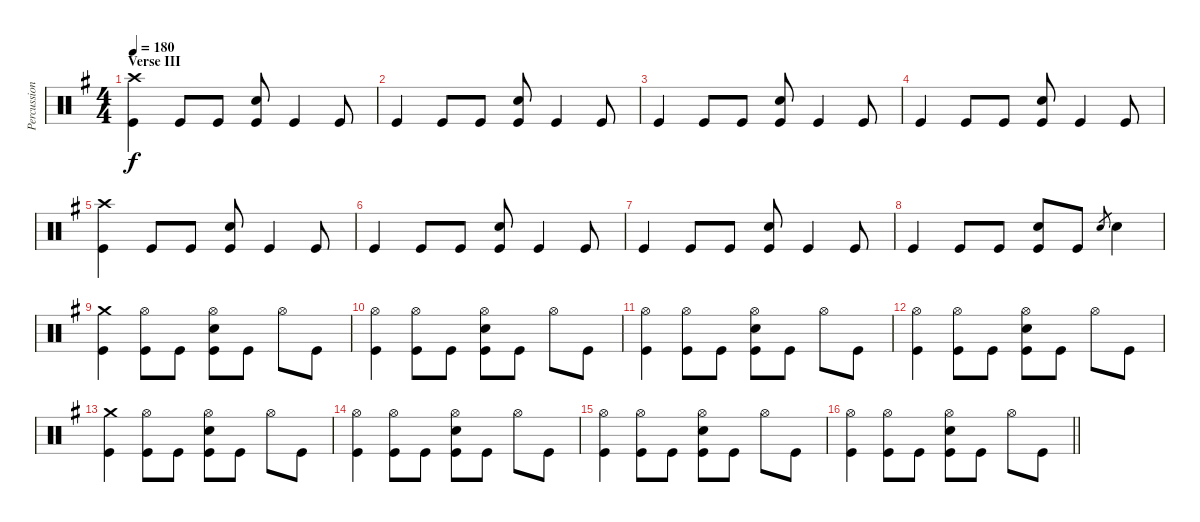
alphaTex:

\track ("Percussion" "Percussion") {instrument percussion}
\staff {score}
\articulation defaults
\ts (4 4)
\section ("" "Verse III")
\tempo 180
\clef neutral
\ks g
("Crash high (hit)" "Kick (hit)").4{dy f} "Kick (hit)".8 "Kick (hit)".8 ("Electric Snare (hit)" "Kick (hit)").8 "Kick (hit)".4 "Kick (hit)".8 |
"Kick (hit)".4 "Kick (hit)".8 "Kick (hit)".8 ("Electric Snare (hit)" "Kick (hit)").8 "Kick (hit)".4 "Kick (hit)".8 |
"Kick (hit)".4 "Kick (hit)".8 "Kick (hit)".8 ("Electric Snare (hit)" "Kick (hit)").8 "Kick (hit)".4 "Kick (hit)".8 |
"Kick (hit)".4 "Kick (hit)".8 "Kick (hit)".8 ("Electric Snare (hit)" "Kick (hit)").8 "Kick (hit)".4 "Kick (hit)".8 |
("Crash high (hit)" "Kick (hit)").4 "Kick (hit)".8 "Kick (hit)".8 ("Electric Snare (hit)" "Kick (hit)").8 "Kick (hit)".4 "Kick (hit)".8 |
"Kick (hit)".4 "Kick (hit)".8 "Kick (hit)".8 ("Electric Snare (hit)" "Kick (hit)").8 "Kick (hit)".4 "Kick (hit)".8 |
"Kick (hit)".4 "Kick (hit)".8 "Kick (hit)".8 ("Electric Snare (hit)" "Kick (hit)").8 "Kick (hit)".4 "Kick (hit)".8 |
"Kick (hit)".4 "Kick (hit)".8 "Kick (hit)".8 ("Electric Snare (hit)" "Kick (hit)").8 "Kick (hit)".8 "Electric Snare (hit)".8{gr} "Electric Snare (hit)".4 |
("Crash medium (hit)" "Kick (hit)").4 ("Hi-Hat (open)" "Kick (hit)").8 "Kick (hit)".8 ("Hi-Hat (open)" "Electric Snare (hit)" "Kick (hit)").8 "Kick (hit)".8 "Hi-Hat (open)".8 "Kick (hit)".8 |
("Hi-Hat (open)" "Kick (hit)").4 ("Hi-Hat (open)" "Kick (hit)").8 "Kick (hit)".8 ("Hi-Hat (open)" "Electric Snare (hit)" "Kick (hit)").8 "Kick (hit)".8 "Hi-Hat (open)".8 "Kick (hit)".8 |
("Hi-Hat (open)" "Kick (hit)").4 ("Hi-Hat (open)" "Kick (hit)").8 "Kick (hit)".8 ("Hi-Hat (open)" "Electric Snare (hit)" "Kick (hit)").8 "Kick (hit)".8 "Hi-Hat (open)".8 "Kick (hit)".8 |
("Hi-Hat (open)" "Kick (hit)").4 ("Hi-Hat (open)" "Kick (hit)").8 "Kick (hit)".8 ("Hi-Hat (open)" "Electric Snare (hit)" "Kick (hit)").8 "Kick (hit)".8 "Hi-Hat (open)".8 "Kick (hit)".8 |
("Crash medium (hit)" "Kick (hit)").4 ("Hi-Hat (open)" "Kick (hit)").8 "Kick (hit)".8 ("Hi-Hat (open)" "Electric Snare (hit)" "Kick (hit)").8 "Kick (hit)".8 "Hi-Hat (open)".8 "Kick (hit)".8 |
("Hi-Hat (open)" "Kick (hit)").4 ("Hi-Hat (open)" "Kick (hit)").8 "Kick (hit)".8 ("Hi-Hat (open)" "Electric Snare (hit)" "Kick (hit)").8 "Kick (hit)".8 "Hi-Hat (open)".8 "Kick (hit)".8 |
("Hi-Hat (open)" "Kick (hit)").4 ("Hi-Hat (open)" "Kick (hit)").8 "Kick (hit)".8 ("Hi-Hat (open)" "Electric Snare (hit)" "Kick (hit)").8 "Kick (hit)".8 "Hi-Hat (open)".8 "Kick (hit)".8 |
\barLineRight lightlight
("Hi-Hat (open)" "Kick (hit)").4 ("Hi-Hat (open)" "Kick (hit)").8 "Kick (hit)".8 ("Hi-Hat (open)" "Electric Snare (hit)" "Kick (hit)").8 "Kick (hit)".8 "Hi-Hat (open)".8 "Kick (hit)".8
